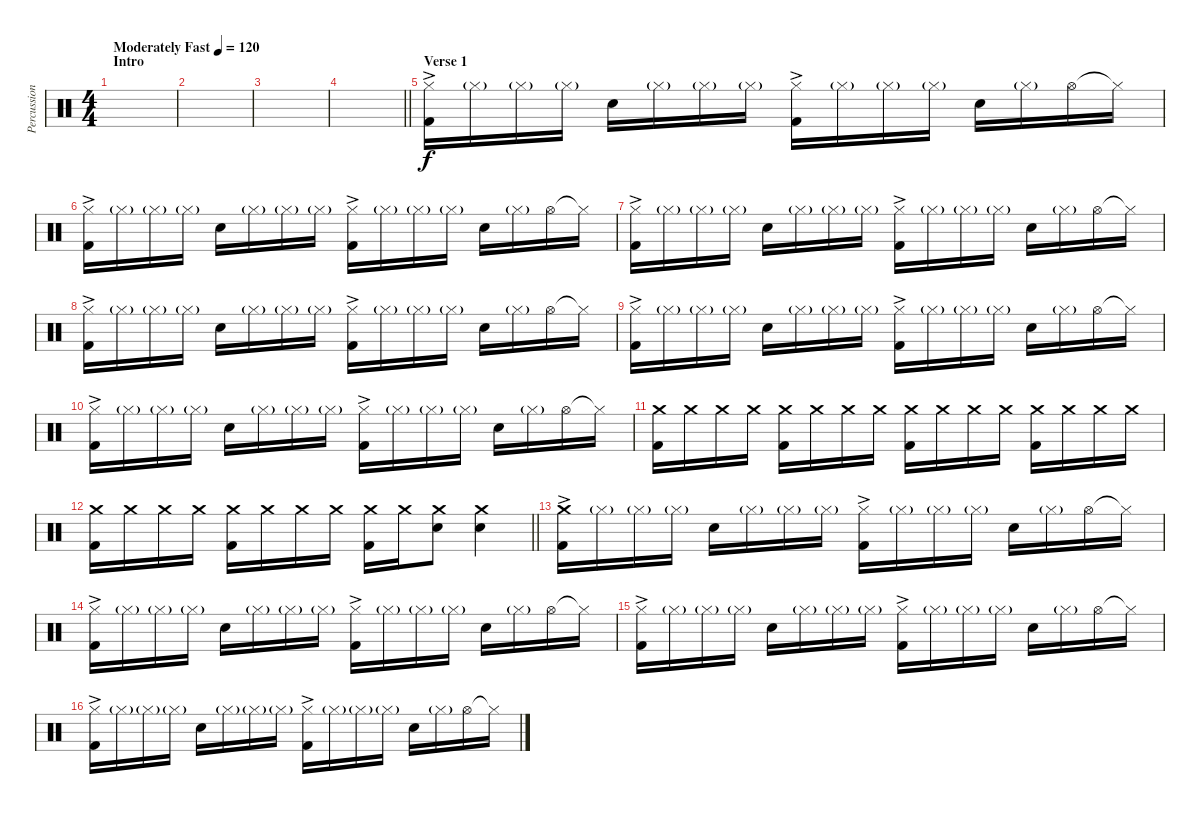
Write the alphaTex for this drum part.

\track ("Percussion" "Percussion") {instrument percussion}
\staff {score}
\articulation defaults
\ts (4 4)
\section ("" "Intro")
\tempo (120 "Moderately Fast")
\clef neutral
\ks c
|
|
|
\barLineRight lightlight
|
\section ("" "Verse 1")
("Hi-Hat (closed)"{ac} "Kick (hit) 2").16{balance 13} "Hi-Hat (closed)"{g}.16 "Hi-Hat (closed)"{g}.16 "Hi-Hat (closed)"{g}.16 "Electric Snare (hit)".16 "Hi-Hat (closed)"{g}.16 "Hi-Hat (closed)"{g}.16 "Hi-Hat (closed)"{g}.16 ("Hi-Hat (closed)"{ac} "Kick (hit) 2"{ac}).16 "Hi-Hat (closed)"{g}.16 "Hi-Hat (closed)"{g}.16 "Hi-Hat (closed)"{g}.16 "Electric Snare (hit)".16 "Hi-Hat (closed)"{g}.16 "Hi-Hat (open)".16 "Hi-Hat (closed)"{t}.16 |
("Hi-Hat (closed)"{ac} "Kick (hit) 2").16 "Hi-Hat (closed)"{g}.16 "Hi-Hat (closed)"{g}.16 "Hi-Hat (closed)"{g}.16 "Electric Snare (hit)".16 "Hi-Hat (closed)"{g}.16 "Hi-Hat (closed)"{g}.16 "Hi-Hat (closed)"{g}.16 ("Hi-Hat (closed)"{ac} "Kick (hit) 2"{ac}).16 "Hi-Hat (closed)"{g}.16 "Hi-Hat (closed)"{g}.16 "Hi-Hat (closed)"{g}.16 "Electric Snare (hit)".16 "Hi-Hat (closed)"{g}.16 "Hi-Hat (open)".16 "Hi-Hat (closed)"{t}.16 |
("Hi-Hat (closed)"{ac} "Kick (hit) 2").16 "Hi-Hat (closed)"{g}.16 "Hi-Hat (closed)"{g}.16 "Hi-Hat (closed)"{g}.16 "Electric Snare (hit)".16 "Hi-Hat (closed)"{g}.16 "Hi-Hat (closed)"{g}.16 "Hi-Hat (closed)"{g}.16 ("Hi-Hat (closed)"{ac} "Kick (hit) 2"{ac}).16 "Hi-Hat (closed)"{g}.16 "Hi-Hat (closed)"{g}.16 "Hi-Hat (closed)"{g}.16 "Electric Snare (hit)".16 "Hi-Hat (closed)"{g}.16 "Hi-Hat (open)".16 "Hi-Hat (closed)"{t}.16 |
("Hi-Hat (closed)"{ac} "Kick (hit) 2").16 "Hi-Hat (closed)"{g}.16 "Hi-Hat (closed)"{g}.16 "Hi-Hat (closed)"{g}.16 "Electric Snare (hit)".16 "Hi-Hat (closed)"{g}.16 "Hi-Hat (closed)"{g}.16 "Hi-Hat (closed)"{g}.16 ("Hi-Hat (closed)"{ac} "Kick (hit) 2"{ac}).16 "Hi-Hat (closed)"{g}.16 "Hi-Hat (closed)"{g}.16 "Hi-Hat (closed)"{g}.16 "Electric Snare (hit)".16 "Hi-Hat (closed)"{g}.16 "Hi-Hat (open)".16 "Hi-Hat (closed)"{t}.16 |
("Hi-Hat (closed)"{ac} "Kick (hit) 2").16 "Hi-Hat (closed)"{g}.16 "Hi-Hat (closed)"{g}.16 "Hi-Hat (closed)"{g}.16 "Electric Snare (hit)".16 "Hi-Hat (closed)"{g}.16 "Hi-Hat (closed)"{g}.16 "Hi-Hat (closed)"{g}.16 ("Hi-Hat (closed)"{ac} "Kick (hit) 2"{ac}).16 "Hi-Hat (closed)"{g}.16 "Hi-Hat (closed)"{g}.16 "Hi-Hat (closed)"{g}.16 "Electric Snare (hit)".16 "Hi-Hat (closed)"{g}.16 "Hi-Hat (open)".16 "Hi-Hat (closed)"{t}.16 |
("Hi-Hat (closed)"{ac} "Kick (hit) 2").16 "Hi-Hat (closed)"{g}.16 "Hi-Hat (closed)"{g}.16 "Hi-Hat (closed)"{g}.16 "Electric Snare (hit)".16 "Hi-Hat (closed)"{g}.16 "Hi-Hat (closed)"{g}.16 "Hi-Hat (closed)"{g}.16 ("Hi-Hat (closed)"{ac} "Kick (hit) 2"{ac}).16 "Hi-Hat (closed)"{g}.16 "Hi-Hat (closed)"{g}.16 "Hi-Hat (closed)"{g}.16 "Electric Snare (hit)".16 "Hi-Hat (closed)"{g}.16 "Hi-Hat (open)".16 "Hi-Hat (closed)"{t}.16 |
("Crash medium (hit)" "Kick (hit) 2").16{volume 16} "Crash medium (hit)".16 "Crash medium (hit)".16 "Crash medium (hit)".16 ("Crash medium (hit)" "Kick (hit) 2").16 "Crash medium (hit)".16 "Crash medium (hit)".16 "Crash medium (hit)".16 ("Crash medium (hit)" "Kick (hit) 2").16 "Crash medium (hit)".16 "Crash medium (hit)".16 "Crash medium (hit)".16 ("Crash medium (hit)" "Kick (hit) 2").16 "Crash medium (hit)".16 "Crash medium (hit)".16 "Crash medium (hit)".16 |
\barLineRight lightlight
("Crash medium (hit)" "Kick (hit) 2").16 "Crash medium (hit)".16 "Crash medium (hit)".16 "Crash medium (hit)".16 ("Crash medium (hit)" "Kick (hit) 2").16 "Crash medium (hit)".16 "Crash medium (hit)".16 "Crash medium (hit)".16 ("Crash medium (hit)" "Kick (hit) 2").16 "Crash medium (hit)".16 ("Crash medium (hit)" "Electric Snare (hit)").8 ("Crash medium (hit)" "Electric Snare (hit)").4 |
("Crash medium (hit)"{ac} "Kick (hit) 2").16{volume 16 balance 8} "Hi-Hat (closed)"{g}.16 "Hi-Hat (closed)"{g}.16 "Hi-Hat (closed)"{g}.16 "Electric Snare (hit)".16 "Hi-Hat (closed)"{g}.16 "Hi-Hat (closed)"{g}.16 "Hi-Hat (closed)"{g}.16 ("Hi-Hat (closed)"{ac} "Kick (hit) 2"{ac}).16 "Hi-Hat (closed)"{g}.16 "Hi-Hat (closed)"{g}.16 "Hi-Hat (closed)"{g}.16 "Electric Snare (hit)".16 "Hi-Hat (closed)"{g}.16 "Hi-Hat (open)".16 "Hi-Hat (closed)"{t}.16 |
("Hi-Hat (closed)"{ac} "Kick (hit) 2").16 "Hi-Hat (closed)"{g}.16 "Hi-Hat (closed)"{g}.16 "Hi-Hat (closed)"{g}.16 "Electric Snare (hit)".16 "Hi-Hat (closed)"{g}.16 "Hi-Hat (closed)"{g}.16 "Hi-Hat (closed)"{g}.16 ("Hi-Hat (closed)"{ac} "Kick (hit) 2"{ac}).16 "Hi-Hat (closed)"{g}.16 "Hi-Hat (closed)"{g}.16 "Hi-Hat (closed)"{g}.16 "Electric Snare (hit)".16 "Hi-Hat (closed)"{g}.16 "Hi-Hat (open)".16 "Hi-Hat (closed)"{t}.16 |
("Hi-Hat (closed)"{ac} "Kick (hit) 2").16 "Hi-Hat (closed)"{g}.16 "Hi-Hat (closed)"{g}.16 "Hi-Hat (closed)"{g}.16 "Electric Snare (hit)".16 "Hi-Hat (closed)"{g}.16 "Hi-Hat (closed)"{g}.16 "Hi-Hat (closed)"{g}.16 ("Hi-Hat (closed)"{ac} "Kick (hit) 2"{ac}).16 "Hi-Hat (closed)"{g}.16 "Hi-Hat (closed)"{g}.16 "Hi-Hat (closed)"{g}.16 "Electric Snare (hit)".16 "Hi-Hat (closed)"{g}.16 "Hi-Hat (open)".16 "Hi-Hat (closed)"{t}.16 |
("Hi-Hat (closed)"{ac} "Kick (hit) 2").16 "Hi-Hat (closed)"{g}.16 "Hi-Hat (closed)"{g}.16 "Hi-Hat (closed)"{g}.16 "Electric Snare (hit)".16 "Hi-Hat (closed)"{g}.16 "Hi-Hat (closed)"{g}.16 "Hi-Hat (closed)"{g}.16 ("Hi-Hat (closed)"{ac} "Kick (hit) 2"{ac}).16 "Hi-Hat (closed)"{g}.16 "Hi-Hat (closed)"{g}.16 "Hi-Hat (closed)"{g}.16 "Electric Snare (hit)".16 "Hi-Hat (closed)"{g}.16 "Hi-Hat (open)".16 "Hi-Hat (closed)"{t}.16
